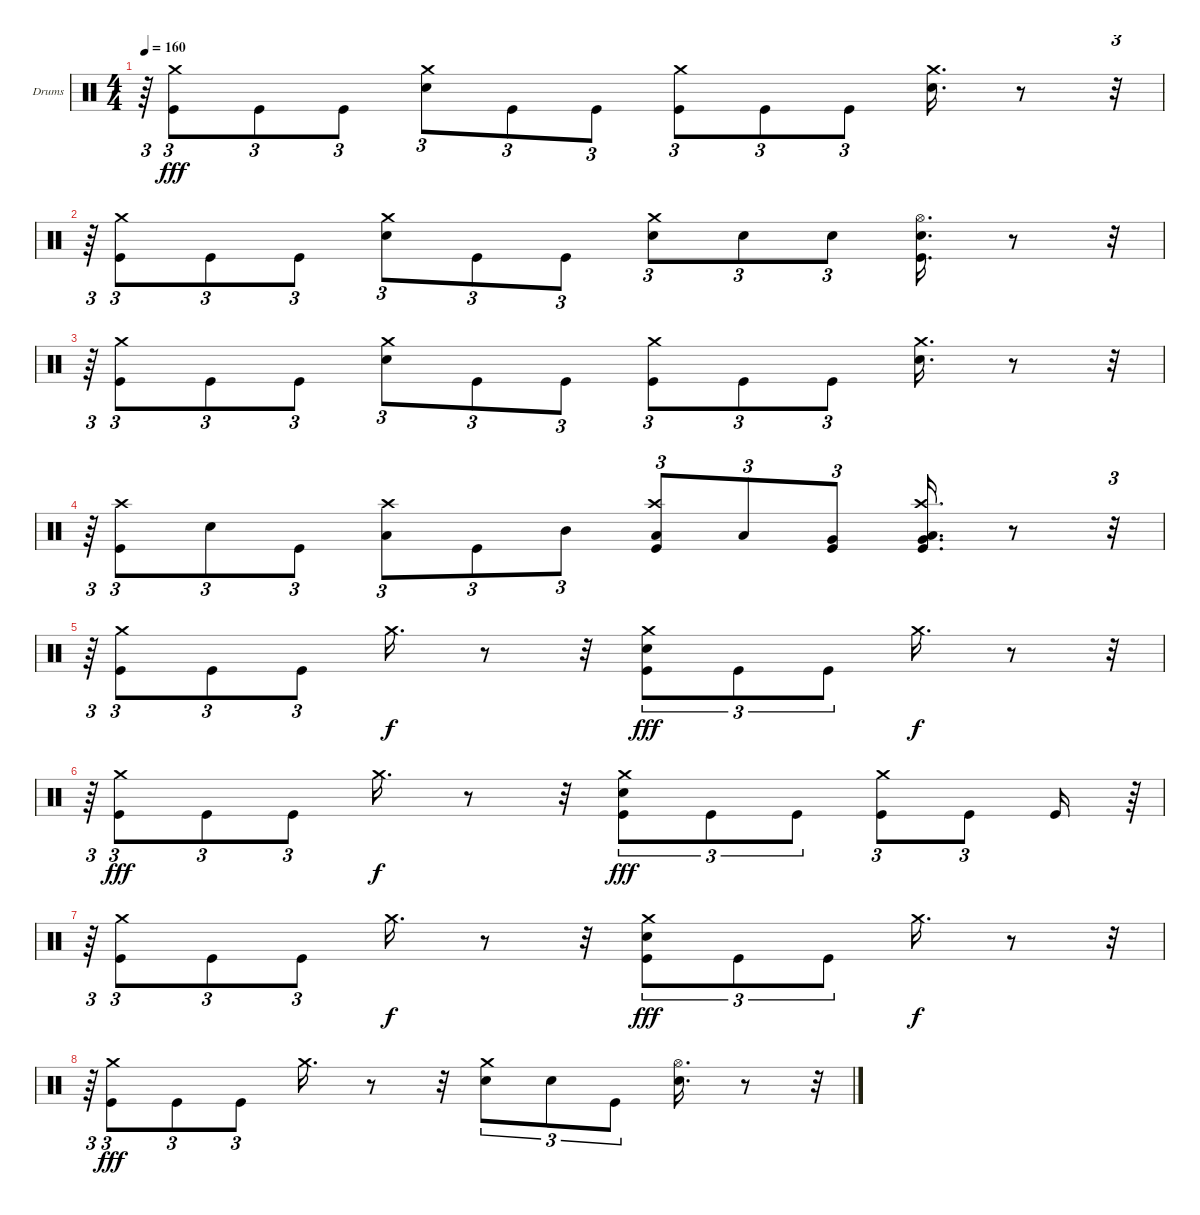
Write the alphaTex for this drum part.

\bracketExtendMode groupsimilarinstruments
\firstSystemTrackNameOrientation horizontal
\otherSystemsTrackNameOrientation horizontal
\track ("Drums" "Drums") {instrument percussion}
\staff {score}
\articulation defaults
\ts (4 4)
\tempo 160
\clef neutral
\ks c
r.64{tu (3 2) dy fff} ("Crash medium (hit)" "Kick (hit)").8{tu (3 2)} "Kick (hit)".8{tu (3 2)} "Kick (hit)".8{tu (3 2)} ("Crash medium (hit)" "Snare (hit) 2").8{tu (3 2)} "Kick (hit)".8{tu (3 2)} "Kick (hit)".8{tu (3 2)} ("Kick (hit)" "Crash medium (hit)").8{tu (3 2)} "Kick (hit)".8{tu (3 2)} "Kick (hit)".8{tu (3 2)} ("Crash medium (hit)" "Snare (hit) 2").16{d} r.8 r.32{tu (3 2)} |
r.64{tu (3 2)} ("Crash medium (hit)" "Kick (hit)").8{tu (3 2)} "Kick (hit)".8{tu (3 2)} "Kick (hit)".8{tu (3 2)} ("Crash medium (hit)" "Snare (hit) 2").8{tu (3 2)} "Kick (hit)".8{tu (3 2)} "Kick (hit)".8{tu (3 2)} ("Crash medium (hit)" "Snare (hit) 2").8{tu (3 2)} "Snare (hit) 2".8{tu (3 2)} "Snare (hit) 2".8{tu (3 2)} ("Kick (hit)" "Hi-Hat (open)" "Snare (hit) 2").16{d} r.8 r.32{tu (3 2)} |
r.64{tu (3 2)} ("Crash medium (hit)" "Kick (hit)").8{tu (3 2)} "Kick (hit)".8{tu (3 2)} "Kick (hit)".8{tu (3 2)} ("Crash medium (hit)" "Snare (hit) 2").8{tu (3 2)} "Kick (hit)".8{tu (3 2)} "Kick (hit)".8{tu (3 2)} ("Crash medium (hit)" "Kick (hit)").8{tu (3 2)} "Kick (hit)".8{tu (3 2)} "Kick (hit)".8{tu (3 2)} ("Crash medium (hit)" "Snare (hit) 2").16{d} r.8 r.32{tu (3 2)} |
r.64{tu (3 2)} ("Crash high (hit)" "Kick (hit)").8{tu (3 2)} "Snare (hit) 2".8{tu (3 2)} "Kick (hit)".8{tu (3 2)} ("Crash high (hit)" "Low Tom (hit)").8{tu (3 2)} "Kick (hit)".8{tu (3 2)} "Mid Tom (hit)".8{tu (3 2)} ("Crash high (hit)" "Low Tom (hit)" "Kick (hit)").8{tu (3 2)} "Low Tom (hit)".8{tu (3 2)} ("Kick (hit)" "Very Low Tom (hit)").8{tu (3 2)} ("Crash high (hit)" "Kick (hit)" "Very Low Tom (hit)" "Low Tom (hit)").16{d} r.8 r.32{tu (3 2)} |
r.64{tu (3 2)} ("Kick (hit)" "Crash medium (hit)").8{tu (3 2)} "Kick (hit)".8{tu (3 2)} "Kick (hit)".8{tu (3 2)} "Crash medium (hit)".16{d dy f} r.8 r.32 ("Snare (hit) 2" "Kick (hit)" "Crash medium (hit)").8{tu (3 2) dy fff} "Kick (hit)".8{tu (3 2)} "Kick (hit)".8{tu (3 2)} "Crash medium (hit)".16{d dy f} r.8 r.32{tu (3 2)} |
r.64{tu (3 2)} ("Kick (hit)" "Crash medium (hit)").8{tu (3 2) dy fff} "Kick (hit)".8{tu (3 2)} "Kick (hit)".8{tu (3 2)} "Crash medium (hit)".16{d dy f} r.8 r.32 ("Kick (hit)" "Snare (hit) 2" "Crash medium (hit)").8{tu (3 2) dy fff} "Kick (hit)".8{tu (3 2)} "Kick (hit)".8{tu (3 2)} ("Kick (hit)" "Crash medium (hit)").8{tu (3 2)} "Kick (hit)".8{tu (3 2)} "Kick (hit)".16 r.64{tu (3 2)} |
r.64{tu (3 2)} ("Kick (hit)" "Crash medium (hit)").8{tu (3 2)} "Kick (hit)".8{tu (3 2)} "Kick (hit)".8{tu (3 2)} "Crash medium (hit)".16{d dy f} r.8 r.32 ("Snare (hit) 2" "Kick (hit)" "Crash medium (hit)").8{tu (3 2) dy fff} "Kick (hit)".8{tu (3 2)} "Kick (hit)".8{tu (3 2)} "Crash medium (hit)".16{d dy f} r.8 r.32{tu (3 2)} |
r.64{tu (3 2)} ("Crash medium (hit)" "Kick (hit)").8{tu (3 2) dy fff} "Kick (hit)".8{tu (3 2)} "Kick (hit)".8{tu (3 2)} "Crash medium (hit)".16{d} r.8 r.32 ("Crash medium (hit)" "Snare (hit) 2").8{tu (3 2)} "Snare (hit) 2".8{tu (3 2)} "Kick (hit)".8{tu (3 2)} ("Hi-Hat (open)" "Snare (hit) 2").16{d} r.8 r.32{tu (3 2)}
